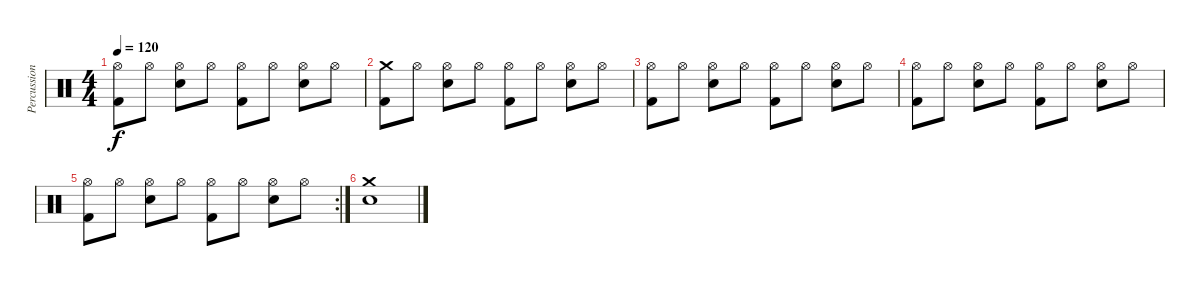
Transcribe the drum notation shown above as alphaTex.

\track ("Percussion" "Percussion") {instrument percussion}
\staff {score}
\articulation defaults
\ts (4 4)
\tempo 120
\clef neutral
\ks c
("Hi-Hat (open)" "Kick (hit) 2").8{dy f} "Hi-Hat (open)".8 ("Hi-Hat (open)" "Electric Snare (hit)").8 "Hi-Hat (open)".8 ("Hi-Hat (open)" "Kick (hit) 2").8 "Hi-Hat (open)".8 ("Hi-Hat (open)" "Electric Snare (hit)").8 "Hi-Hat (open)".8 |
("Crash medium (hit)" "Kick (hit) 2").8 "Hi-Hat (open)".8 ("Hi-Hat (open)" "Electric Snare (hit)").8 "Hi-Hat (open)".8 ("Hi-Hat (open)" "Kick (hit) 2").8 "Hi-Hat (open)".8 ("Hi-Hat (open)" "Electric Snare (hit)").8 "Hi-Hat (open)".8 |
("Hi-Hat (open)" "Kick (hit) 2").8 "Hi-Hat (open)".8 ("Hi-Hat (open)" "Electric Snare (hit)").8 "Hi-Hat (open)".8 ("Hi-Hat (open)" "Kick (hit) 2").8 "Hi-Hat (open)".8 ("Hi-Hat (open)" "Electric Snare (hit)").8 "Hi-Hat (open)".8 |
("Hi-Hat (open)" "Kick (hit) 2").8 "Hi-Hat (open)".8 ("Hi-Hat (open)" "Electric Snare (hit)").8 "Hi-Hat (open)".8 ("Hi-Hat (open)" "Kick (hit) 2").8 "Hi-Hat (open)".8 ("Hi-Hat (open)" "Electric Snare (hit)").8 "Hi-Hat (open)".8 |
\rc 2
("Hi-Hat (open)" "Kick (hit) 2").8 "Hi-Hat (open)".8 ("Hi-Hat (open)" "Electric Snare (hit)").8 "Hi-Hat (open)".8 ("Hi-Hat (open)" "Kick (hit) 2").8 "Hi-Hat (open)".8 ("Hi-Hat (open)" "Electric Snare (hit)").8 "Hi-Hat (open)".8 |
("Crash medium (hit)" "Electric Snare (hit)").1
